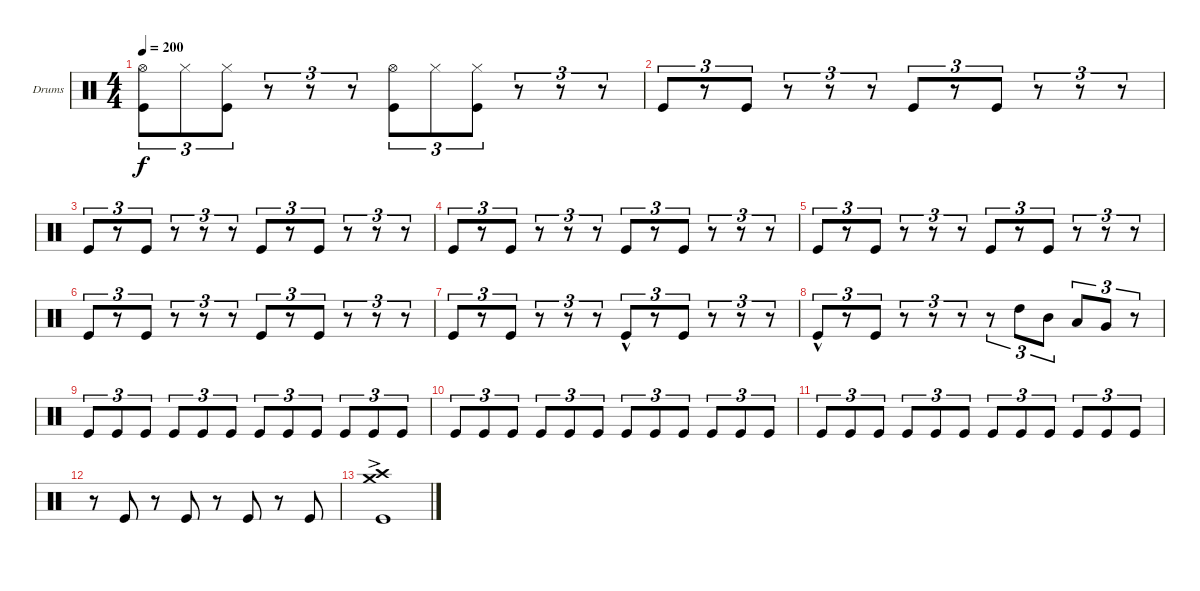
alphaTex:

\bracketExtendMode groupsimilarinstruments
\firstSystemTrackNameOrientation horizontal
\otherSystemsTrackNameOrientation horizontal
\track ("Drumkit" "Drums") {instrument percussion}
\staff {score}
\articulation defaults
\ts (4 4)
\tempo 200
\clef neutral
\scale
0.333333
\ks c
("Kick (hit)" "Hi-Hat (open)").8{tu (3 2) dy f} "Hi-Hat (closed)".8{tu (3 2)} ("Kick (hit)" "Hi-Hat (closed)").8{tu (3 2)} r.8{tu (3 2)} r.8{tu (3 2)} r.8{tu (3 2)} ("Kick (hit)" "Hi-Hat (open)").8{tu (3 2)} "Hi-Hat (closed)".8{tu (3 2)} ("Kick (hit)" "Hi-Hat (closed)").8{tu (3 2)} r.8{tu (3 2)} r.8{tu (3 2)} r.8{tu (3 2)} |
\scale
0.333333 "Kick (hit)".8{tu (3 2)} r.8{tu (3 2)} "Kick (hit)".8{tu (3 2)} r.8{tu (3 2)} r.8{tu (3 2)} r.8{tu (3 2)} "Kick (hit)".8{tu (3 2)} r.8{tu (3 2)} "Kick (hit)".8{tu (3 2)} r.8{tu (3 2)} r.8{tu (3 2)} r.8{tu (3 2)} |
\scale
0.333333 "Kick (hit)".8{tu (3 2)} r.8{tu (3 2)} "Kick (hit)".8{tu (3 2)} r.8{tu (3 2)} r.8{tu (3 2)} r.8{tu (3 2)} "Kick (hit)".8{tu (3 2)} r.8{tu (3 2)} "Kick (hit)".8{tu (3 2)} r.8{tu (3 2)} r.8{tu (3 2)} r.8{tu (3 2)} |
\scale
0.333333 "Kick (hit)".8{tu (3 2)} r.8{tu (3 2)} "Kick (hit)".8{tu (3 2)} r.8{tu (3 2)} r.8{tu (3 2)} r.8{tu (3 2)} "Kick (hit)".8{tu (3 2)} r.8{tu (3 2)} "Kick (hit)".8{tu (3 2)} r.8{tu (3 2)} r.8{tu (3 2)} r.8{tu (3 2)} |
\scale
0.333333 "Kick (hit)".8{tu (3 2)} r.8{tu (3 2)} "Kick (hit)".8{tu (3 2)} r.8{tu (3 2)} r.8{tu (3 2)} r.8{tu (3 2)} "Kick (hit)".8{tu (3 2)} r.8{tu (3 2)} "Kick (hit)".8{tu (3 2)} r.8{tu (3 2)} r.8{tu (3 2)} r.8{tu (3 2)} |
\scale
0.333333 "Kick (hit)".8{tu (3 2)} r.8{tu (3 2)} "Kick (hit)".8{tu (3 2)} r.8{tu (3 2)} r.8{tu (3 2)} r.8{tu (3 2)} "Kick (hit)".8{tu (3 2)} r.8{tu (3 2)} "Kick (hit)".8{tu (3 2)} r.8{tu (3 2)} r.8{tu (3 2)} r.8{tu (3 2)} |
\scale
0.333333 "Kick (hit)".8{tu (3 2)} r.8{tu (3 2)} "Kick (hit)".8{tu (3 2)} r.8{tu (3 2)} r.8{tu (3 2)} r.8{tu (3 2)} "Kick (hit)"{hac}.8{tu (3 2)} r.8{tu (3 2)} "Kick (hit)".8{tu (3 2)} r.8{tu (3 2)} r.8{tu (3 2)} r.8{tu (3 2)} |
\scale
0.333333 "Kick (hit)"{hac}.8{tu (3 2)} r.8{tu (3 2)} "Kick (hit)".8{tu (3 2)} r.8{tu (3 2)} r.8{tu (3 2)} r.8{tu (3 2)} r.8{tu (3 2)} "High Tom (hit)".8{tu (3 2)} "Mid Tom (hit)".8{tu (3 2)} "Low Tom (hit)".8{tu (3 2)} "Very Low Tom (hit)".8{tu (3 2)} r.8{tu (3 2)} |
\scale
0.333333 "Kick (hit)".8{tu (3 2)} "Kick (hit)".8{tu (3 2)} "Kick (hit)".8{tu (3 2)} "Kick (hit)".8{tu (3 2)} "Kick (hit)".8{tu (3 2)} "Kick (hit)".8{tu (3 2)} "Kick (hit)".8{tu (3 2)} "Kick (hit)".8{tu (3 2)} "Kick (hit)".8{tu (3 2)} "Kick (hit)".8{tu (3 2)} "Kick (hit)".8{tu (3 2)} "Kick (hit)".8{tu (3 2)} |
\scale
0.333333 "Kick (hit)".8{tu (3 2)} "Kick (hit)".8{tu (3 2)} "Kick (hit)".8{tu (3 2)} "Kick (hit)".8{tu (3 2)} "Kick (hit)".8{tu (3 2)} "Kick (hit)".8{tu (3 2)} "Kick (hit)".8{tu (3 2)} "Kick (hit)".8{tu (3 2)} "Kick (hit)".8{tu (3 2)} "Kick (hit)".8{tu (3 2)} "Kick (hit)".8{tu (3 2)} "Kick (hit)".8{tu (3 2)} |
"Kick (hit)".8{tu (3 2)} "Kick (hit)".8{tu (3 2)} "Kick (hit)".8{tu (3 2)} "Kick (hit)".8{tu (3 2)} "Kick (hit)".8{tu (3 2)} "Kick (hit)".8{tu (3 2)} "Kick (hit)".8{tu (3 2)} "Kick (hit)".8{tu (3 2)} "Kick (hit)".8{tu (3 2)} "Kick (hit)".8{tu (3 2)} "Kick (hit)".8{tu (3 2)} "Kick (hit)".8{tu (3 2)} |
r.8 "Kick (hit)".8 r.8 "Kick (hit)".8 r.8 "Kick (hit)".8 r.8 "Kick (hit)".8 |
("Kick (hit)"{ac} "Crash medium (hit)"{ac} "Crash high (hit)"{ac}).1
